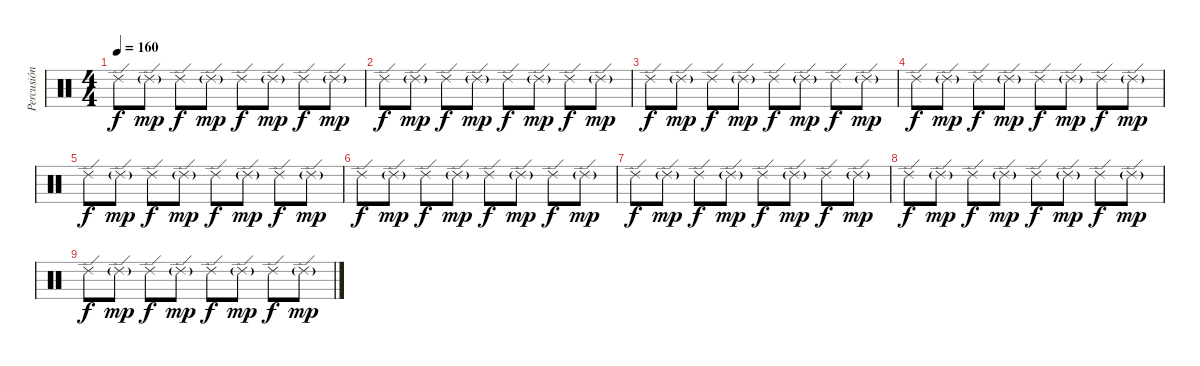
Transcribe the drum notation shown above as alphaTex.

\track ("Percusión" "Percusión") {instrument percussion}
\staff {score}
\articulation defaults
\ts (4 4)
\tempo 160
\clef neutral
\ks c "Ride (edge) 2".8{dy f} "Ride (edge) 2"{g}.8{dy mp} "Ride (edge) 2".8{dy f} "Ride (edge) 2"{g}.8{dy mp} "Ride (edge) 2".8{dy f} "Ride (edge) 2"{g}.8{dy mp} "Ride (edge) 2".8{dy f} "Ride (edge) 2"{g}.8{dy mp}
|
"Ride (edge) 2".8{dy f} "Ride (edge) 2"{g}.8{dy mp} "Ride (edge) 2".8{dy f} "Ride (edge) 2"{g}.8{dy mp} "Ride (edge) 2".8{dy f} "Ride (edge) 2"{g}.8{dy mp} "Ride (edge) 2".8{dy f} "Ride (edge) 2"{g}.8{dy mp} |
"Ride (edge) 2".8{dy f} "Ride (edge) 2"{g}.8{dy mp} "Ride (edge) 2".8{dy f} "Ride (edge) 2"{g}.8{dy mp} "Ride (edge) 2".8{dy f} "Ride (edge) 2"{g}.8{dy mp} "Ride (edge) 2".8{dy f} "Ride (edge) 2"{g}.8{dy mp} |
"Ride (edge) 2".8{dy f} "Ride (edge) 2"{g}.8{dy mp} "Ride (edge) 2".8{dy f} "Ride (edge) 2"{g}.8{dy mp} "Ride (edge) 2".8{dy f} "Ride (edge) 2"{g}.8{dy mp} "Ride (edge) 2".8{dy f} "Ride (edge) 2"{g}.8{dy mp} |
"Ride (edge) 2".8{dy f} "Ride (edge) 2"{g}.8{dy mp} "Ride (edge) 2".8{dy f} "Ride (edge) 2"{g}.8{dy mp} "Ride (edge) 2".8{dy f} "Ride (edge) 2"{g}.8{dy mp} "Ride (edge) 2".8{dy f} "Ride (edge) 2"{g}.8{dy mp} |
"Ride (edge) 2".8{dy f} "Ride (edge) 2"{g}.8{dy mp} "Ride (edge) 2".8{dy f} "Ride (edge) 2"{g}.8{dy mp} "Ride (edge) 2".8{dy f} "Ride (edge) 2"{g}.8{dy mp} "Ride (edge) 2".8{dy f} "Ride (edge) 2"{g}.8{dy mp} |
"Ride (edge) 2".8{dy f} "Ride (edge) 2"{g}.8{dy mp} "Ride (edge) 2".8{dy f} "Ride (edge) 2"{g}.8{dy mp} "Ride (edge) 2".8{dy f} "Ride (edge) 2"{g}.8{dy mp} "Ride (edge) 2".8{dy f} "Ride (edge) 2"{g}.8{dy mp} |
"Ride (edge) 2".8{dy f} "Ride (edge) 2"{g}.8{dy mp} "Ride (edge) 2".8{dy f} "Ride (edge) 2"{g}.8{dy mp} "Ride (edge) 2".8{dy f} "Ride (edge) 2"{g}.8{dy mp} "Ride (edge) 2".8{dy f} "Ride (edge) 2"{g}.8{dy mp} |
"Ride (edge) 2".8{dy f} "Ride (edge) 2"{g}.8{dy mp} "Ride (edge) 2".8{dy f} "Ride (edge) 2"{g}.8{dy mp} "Ride (edge) 2".8{dy f} "Ride (edge) 2"{g}.8{dy mp} "Ride (edge) 2".8{dy f} "Ride (edge) 2"{g}.8{dy mp}
